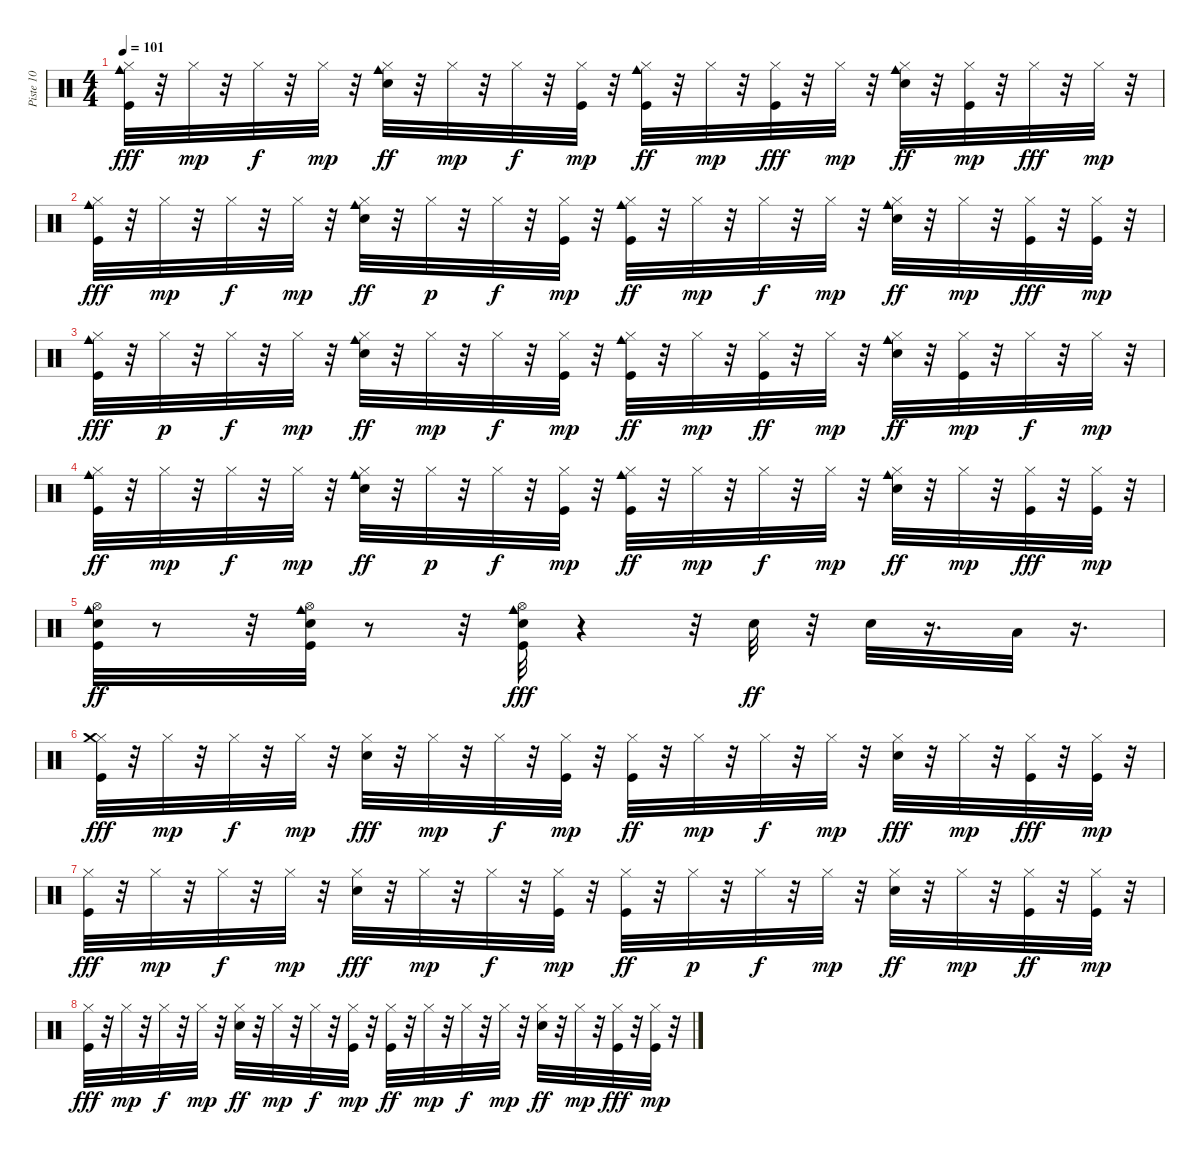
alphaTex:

\track ("Piste 10" "Piste 10") {instrument percussion}
\staff {score}
\articulation defaults
\ts (4 4)
\tempo 101
\clef neutral
\ks c
("Kick (hit)" "Hi-Hat (closed)" "Cowbell medium (hit)").32{dy fff} r.32 "Hi-Hat (closed)".32{dy mp} r.32 "Hi-Hat (closed)".32{dy f} r.32 "Hi-Hat (closed)".32{dy mp} r.32 ("Electric Snare (hit)" "Hi-Hat (closed)" "Cowbell medium (hit)").32{dy ff} r.32 "Hi-Hat (closed)".32{dy mp} r.32 "Hi-Hat (closed)".32{dy f} r.32 ("Kick (hit)" "Hi-Hat (closed)").32{dy mp} r.32 ("Kick (hit)" "Hi-Hat (closed)" "Cowbell medium (hit)").32{dy ff} r.32 "Hi-Hat (closed)".32{dy mp} r.32 ("Kick (hit)" "Hi-Hat (closed)").32{dy fff} r.32 "Hi-Hat (closed)".32{dy mp} r.32 ("Electric Snare (hit)" "Hi-Hat (closed)" "Cowbell medium (hit)").32{dy ff} r.32 ("Kick (hit)" "Hi-Hat (closed)").32{dy mp} r.32 "Hi-Hat (closed)".32{dy fff} r.32 "Hi-Hat (closed)".32{dy mp} r.32 |
("Kick (hit)" "Hi-Hat (closed)" "Cowbell medium (hit)").32{dy fff} r.32 "Hi-Hat (closed)".32{dy mp} r.32 "Hi-Hat (closed)".32{dy f} r.32 "Hi-Hat (closed)".32{dy mp} r.32 ("Electric Snare (hit)" "Hi-Hat (closed)" "Cowbell medium (hit)").32{dy ff} r.32 "Hi-Hat (closed)".32{dy p} r.32 "Hi-Hat (closed)".32{dy f} r.32 ("Kick (hit)" "Hi-Hat (closed)").32{dy mp} r.32 ("Kick (hit)" "Hi-Hat (closed)" "Cowbell medium (hit)").32{dy ff} r.32 "Hi-Hat (closed)".32{dy mp} r.32 "Hi-Hat (closed)".32{dy f} r.32 "Hi-Hat (closed)".32{dy mp} r.32 ("Electric Snare (hit)" "Hi-Hat (closed)" "Cowbell medium (hit)").32{dy ff} r.32 "Hi-Hat (closed)".32{dy mp} r.32 ("Kick (hit)" "Hi-Hat (closed)").32{dy fff} r.32 ("Kick (hit)" "Hi-Hat (closed)").32{dy mp} r.32 |
("Kick (hit)" "Hi-Hat (closed)" "Cowbell medium (hit)").32{dy fff} r.32 "Hi-Hat (closed)".32{dy p} r.32 "Hi-Hat (closed)".32{dy f} r.32 "Hi-Hat (closed)".32{dy mp} r.32 ("Electric Snare (hit)" "Hi-Hat (closed)" "Cowbell medium (hit)").32{dy ff} r.32 "Hi-Hat (closed)".32{dy mp} r.32 "Hi-Hat (closed)".32{dy f} r.32 ("Kick (hit)" "Hi-Hat (closed)").32{dy mp} r.32 ("Kick (hit)" "Hi-Hat (closed)" "Cowbell medium (hit)").32{dy ff} r.32 "Hi-Hat (closed)".32{dy mp} r.32 ("Kick (hit)" "Hi-Hat (closed)").32{dy ff} r.32 "Hi-Hat (closed)".32{dy mp} r.32 ("Electric Snare (hit)" "Hi-Hat (closed)" "Cowbell medium (hit)").32{dy ff} r.32 ("Kick (hit)" "Hi-Hat (closed)").32{dy mp} r.32 "Hi-Hat (closed)".32{dy f} r.32 "Hi-Hat (closed)".32{dy mp} r.32 |
("Kick (hit)" "Hi-Hat (closed)" "Cowbell medium (hit)").32{dy ff} r.32 "Hi-Hat (closed)".32{dy mp} r.32 "Hi-Hat (closed)".32{dy f} r.32 "Hi-Hat (closed)".32{dy mp} r.32 ("Electric Snare (hit)" "Hi-Hat (closed)" "Cowbell medium (hit)").32{dy ff} r.32 "Hi-Hat (closed)".32{dy p} r.32 "Hi-Hat (closed)".32{dy f} r.32 ("Kick (hit)" "Hi-Hat (closed)").32{dy mp} r.32 ("Kick (hit)" "Hi-Hat (closed)" "Cowbell medium (hit)").32{dy ff} r.32 "Hi-Hat (closed)".32{dy mp} r.32 "Hi-Hat (closed)".32{dy f} r.32 "Hi-Hat (closed)".32{dy mp} r.32 ("Electric Snare (hit)" "Hi-Hat (closed)" "Cowbell medium (hit)").32{dy ff} r.32 "Hi-Hat (closed)".32{dy mp} r.32 ("Kick (hit)" "Hi-Hat (closed)").32{dy fff} r.32 ("Kick (hit)" "Hi-Hat (closed)").32{dy mp} r.32 |
("Kick (hit)" "Electric Snare (hit)" "Hi-Hat (open)" "Cowbell medium (hit)").32{dy ff} r.8 r.32 ("Kick (hit)" "Electric Snare (hit)" "Hi-Hat (open)" "Cowbell medium (hit)").32 r.8 r.32 ("Kick (hit)" "Electric Snare (hit)" "Hi-Hat (open)" "Cowbell medium (hit)").32{dy fff} r.4 r.32 "Electric Snare (hit)".32{dy ff} r.32 "Electric Snare (hit)".32 r.16{d} "Low Tom (hit)".32 r.16{d} |
("Kick (hit)" "Hi-Hat (closed)" "Crash medium (hit)").32{dy fff} r.32 "Hi-Hat (closed)".32{dy mp} r.32 "Hi-Hat (closed)".32{dy f} r.32 "Hi-Hat (closed)".32{dy mp} r.32 ("Electric Snare (hit)" "Hi-Hat (closed)").32{dy fff} r.32 "Hi-Hat (closed)".32{dy mp} r.32 "Hi-Hat (closed)".32{dy f} r.32 ("Kick (hit)" "Hi-Hat (closed)").32{dy mp} r.32 ("Kick (hit)" "Hi-Hat (closed)").32{dy ff} r.32 "Hi-Hat (closed)".32{dy mp} r.32 "Hi-Hat (closed)".32{dy f} r.32 "Hi-Hat (closed)".32{dy mp} r.32 ("Electric Snare (hit)" "Hi-Hat (closed)").32{dy fff} r.32 "Hi-Hat (closed)".32{dy mp} r.32 ("Kick (hit)" "Hi-Hat (closed)").32{dy fff} r.32 ("Kick (hit)" "Hi-Hat (closed)").32{dy mp} r.32 |
("Kick (hit)" "Hi-Hat (closed)").32{dy fff} r.32 "Hi-Hat (closed)".32{dy mp} r.32 "Hi-Hat (closed)".32{dy f} r.32 "Hi-Hat (closed)".32{dy mp} r.32 ("Electric Snare (hit)" "Hi-Hat (closed)").32{dy fff} r.32 "Hi-Hat (closed)".32{dy mp} r.32 "Hi-Hat (closed)".32{dy f} r.32 ("Kick (hit)" "Hi-Hat (closed)").32{dy mp} r.32 ("Kick (hit)" "Hi-Hat (closed)").32{dy ff} r.32 "Hi-Hat (closed)".32{dy p} r.32 "Hi-Hat (closed)".32{dy f} r.32 "Hi-Hat (closed)".32{dy mp} r.32 ("Electric Snare (hit)" "Hi-Hat (closed)").32{dy ff} r.32 "Hi-Hat (closed)".32{dy mp} r.32 ("Kick (hit)" "Hi-Hat (closed)").32{dy ff} r.32 ("Kick (hit)" "Hi-Hat (closed)").32{dy mp} r.32 |
("Kick (hit)" "Hi-Hat (closed)").32{dy fff} r.32 "Hi-Hat (closed)".32{dy mp} r.32 "Hi-Hat (closed)".32{dy f} r.32 "Hi-Hat (closed)".32{dy mp} r.32 ("Electric Snare (hit)" "Hi-Hat (closed)").32{dy ff} r.32 "Hi-Hat (closed)".32{dy mp} r.32 "Hi-Hat (closed)".32{dy f} r.32 ("Kick (hit)" "Hi-Hat (closed)").32{dy mp} r.32 ("Kick (hit)" "Hi-Hat (closed)").32{dy ff} r.32 "Hi-Hat (closed)".32{dy mp} r.32 "Hi-Hat (closed)".32{dy f} r.32 "Hi-Hat (closed)".32{dy mp} r.32 ("Electric Snare (hit)" "Hi-Hat (closed)").32{dy ff} r.32 "Hi-Hat (closed)".32{dy mp} r.32 ("Kick (hit)" "Hi-Hat (closed)").32{dy fff} r.32 ("Kick (hit)" "Hi-Hat (closed)").32{dy mp} r.32
